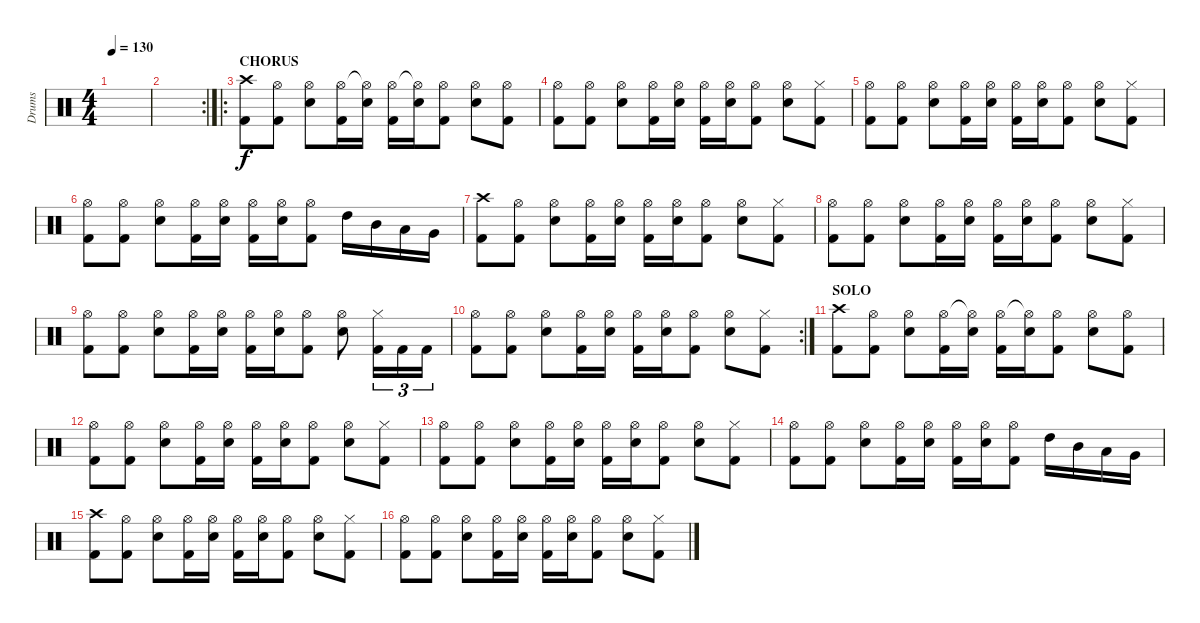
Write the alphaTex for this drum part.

\track ("Drums" "Drums") {instrument percussion}
\staff {score}
\articulation defaults
\ts (4 4)
\tempo 130
\clef neutral
\ks c
|
\rc 2
|
\ro
\section ("" "CHORUS")
("Crash high (hit)" "Kick (hit) 2").8 ("Hi-Hat (open)" "Kick (hit) 2").8 ("Hi-Hat (open)" "Electric Snare (hit)").8 ("Hi-Hat (open)" "Kick (hit) 2").16 ("Hi-Hat (open)"{t} "Electric Snare (hit)").16 ("Hi-Hat (open)" "Kick (hit) 2").16 ("Hi-Hat (open)"{t} "Electric Snare (hit)").16 ("Hi-Hat (open)" "Kick (hit) 2").8 ("Hi-Hat (open)" "Electric Snare (hit)").8 ("Hi-Hat (open)" "Kick (hit) 2").8 |
("Hi-Hat (open)" "Kick (hit) 2").8 ("Hi-Hat (open)" "Kick (hit) 2").8 ("Hi-Hat (open)" "Electric Snare (hit)").8 ("Hi-Hat (open)" "Kick (hit) 2").16 ("Hi-Hat (open)" "Electric Snare (hit)").16 ("Hi-Hat (open)" "Kick (hit) 2").16 ("Hi-Hat (open)" "Electric Snare (hit)").16 ("Hi-Hat (open)" "Kick (hit) 2").8 ("Hi-Hat (open)" "Electric Snare (hit)").8 ("Hi-Hat (closed)" "Kick (hit) 2").8 |
("Hi-Hat (open)" "Kick (hit) 2").8 ("Hi-Hat (open)" "Kick (hit) 2").8 ("Hi-Hat (open)" "Electric Snare (hit)").8 ("Hi-Hat (open)" "Kick (hit) 2").16 ("Hi-Hat (open)" "Electric Snare (hit)").16 ("Hi-Hat (open)" "Kick (hit) 2").16 ("Hi-Hat (open)" "Electric Snare (hit)").16 ("Hi-Hat (open)" "Kick (hit) 2").8 ("Hi-Hat (open)" "Electric Snare (hit)").8 ("Hi-Hat (closed)" "Kick (hit) 2").8 |
("Hi-Hat (open)" "Kick (hit) 2").8 ("Hi-Hat (open)" "Kick (hit) 2").8 ("Hi-Hat (open)" "Electric Snare (hit)").8 ("Hi-Hat (open)" "Kick (hit) 2").16 ("Hi-Hat (open)" "Electric Snare (hit)").16 ("Hi-Hat (open)" "Kick (hit) 2").16 ("Hi-Hat (open)" "Electric Snare (hit)").16 ("Hi-Hat (open)" "Kick (hit) 2").8 "High Tom (hit)".16 "Mid Tom (hit)".16 "Low Tom (hit)".16 "Very Low Tom (hit)".16 |
("Crash high (hit)" "Kick (hit) 2").8 ("Hi-Hat (open)" "Kick (hit) 2").8 ("Hi-Hat (open)" "Electric Snare (hit)").8 ("Hi-Hat (open)" "Kick (hit) 2").16 ("Hi-Hat (open)" "Electric Snare (hit)").16 ("Hi-Hat (open)" "Kick (hit) 2").16 ("Hi-Hat (open)" "Electric Snare (hit)").16 ("Hi-Hat (open)" "Kick (hit) 2").8 ("Hi-Hat (open)" "Electric Snare (hit)").8 ("Hi-Hat (closed)" "Kick (hit) 2").8 |
("Hi-Hat (open)" "Kick (hit) 2").8 ("Hi-Hat (open)" "Kick (hit) 2").8 ("Hi-Hat (open)" "Electric Snare (hit)").8 ("Hi-Hat (open)" "Kick (hit) 2").16 ("Hi-Hat (open)" "Electric Snare (hit)").16 ("Hi-Hat (open)" "Kick (hit) 2").16 ("Hi-Hat (open)" "Electric Snare (hit)").16 ("Hi-Hat (open)" "Kick (hit) 2").8 ("Hi-Hat (open)" "Electric Snare (hit)").8 ("Hi-Hat (closed)" "Kick (hit) 2").8 |
("Hi-Hat (open)" "Kick (hit) 2").8 ("Hi-Hat (open)" "Kick (hit) 2").8 ("Hi-Hat (open)" "Electric Snare (hit)").8 ("Hi-Hat (open)" "Kick (hit) 2").16 ("Hi-Hat (open)" "Electric Snare (hit)").16 ("Hi-Hat (open)" "Kick (hit) 2").16 ("Hi-Hat (open)" "Electric Snare (hit)").16 ("Hi-Hat (open)" "Kick (hit) 2").8 ("Hi-Hat (open)" "Electric Snare (hit)").8 ("Hi-Hat (closed)" "Kick (hit) 2").16{tu (3 2)} "Kick (hit) 2".16{tu (3 2)} "Kick (hit) 2".16{tu (3 2)} |
\rc 2
("Hi-Hat (open)" "Kick (hit) 2").8 ("Hi-Hat (open)" "Kick (hit) 2").8 ("Hi-Hat (open)" "Electric Snare (hit)").8 ("Hi-Hat (open)" "Kick (hit) 2").16 ("Hi-Hat (open)" "Electric Snare (hit)").16 ("Hi-Hat (open)" "Kick (hit) 2").16 ("Hi-Hat (open)" "Electric Snare (hit)").16 ("Hi-Hat (open)" "Kick (hit) 2").8 ("Hi-Hat (open)" "Electric Snare (hit)").8 ("Hi-Hat (closed)" "Kick (hit) 2").8 |
\section ("" "SOLO")
("Crash high (hit)" "Kick (hit) 2").8 ("Hi-Hat (open)" "Kick (hit) 2").8 ("Hi-Hat (open)" "Electric Snare (hit)").8 ("Hi-Hat (open)" "Kick (hit) 2").16 ("Hi-Hat (open)"{t} "Electric Snare (hit)").16 ("Hi-Hat (open)" "Kick (hit) 2").16 ("Hi-Hat (open)"{t} "Electric Snare (hit)").16 ("Hi-Hat (open)" "Kick (hit) 2").8 ("Hi-Hat (open)" "Electric Snare (hit)").8 ("Hi-Hat (open)" "Kick (hit) 2").8 |
("Hi-Hat (open)" "Kick (hit) 2").8 ("Hi-Hat (open)" "Kick (hit) 2").8 ("Hi-Hat (open)" "Electric Snare (hit)").8 ("Hi-Hat (open)" "Kick (hit) 2").16 ("Hi-Hat (open)" "Electric Snare (hit)").16 ("Hi-Hat (open)" "Kick (hit) 2").16 ("Hi-Hat (open)" "Electric Snare (hit)").16 ("Hi-Hat (open)" "Kick (hit) 2").8 ("Hi-Hat (open)" "Electric Snare (hit)").8 ("Hi-Hat (closed)" "Kick (hit) 2").8 |
("Hi-Hat (open)" "Kick (hit) 2").8 ("Hi-Hat (open)" "Kick (hit) 2").8 ("Hi-Hat (open)" "Electric Snare (hit)").8 ("Hi-Hat (open)" "Kick (hit) 2").16 ("Hi-Hat (open)" "Electric Snare (hit)").16 ("Hi-Hat (open)" "Kick (hit) 2").16 ("Hi-Hat (open)" "Electric Snare (hit)").16 ("Hi-Hat (open)" "Kick (hit) 2").8 ("Hi-Hat (open)" "Electric Snare (hit)").8 ("Hi-Hat (closed)" "Kick (hit) 2").8 |
("Hi-Hat (open)" "Kick (hit) 2").8 ("Hi-Hat (open)" "Kick (hit) 2").8 ("Hi-Hat (open)" "Electric Snare (hit)").8 ("Hi-Hat (open)" "Kick (hit) 2").16 ("Hi-Hat (open)" "Electric Snare (hit)").16 ("Hi-Hat (open)" "Kick (hit) 2").16 ("Hi-Hat (open)" "Electric Snare (hit)").16 ("Hi-Hat (open)" "Kick (hit) 2").8 "High Tom (hit)".16 "Mid Tom (hit)".16 "Low Tom (hit)".16 "Very Low Tom (hit)".16 |
("Crash high (hit)" "Kick (hit) 2").8 ("Hi-Hat (open)" "Kick (hit) 2").8 ("Hi-Hat (open)" "Electric Snare (hit)").8 ("Hi-Hat (open)" "Kick (hit) 2").16 ("Hi-Hat (open)" "Electric Snare (hit)").16 ("Hi-Hat (open)" "Kick (hit) 2").16 ("Hi-Hat (open)" "Electric Snare (hit)").16 ("Hi-Hat (open)" "Kick (hit) 2").8 ("Hi-Hat (open)" "Electric Snare (hit)").8 ("Hi-Hat (closed)" "Kick (hit) 2").8 |
("Hi-Hat (open)" "Kick (hit) 2").8 ("Hi-Hat (open)" "Kick (hit) 2").8 ("Hi-Hat (open)" "Electric Snare (hit)").8 ("Hi-Hat (open)" "Kick (hit) 2").16 ("Hi-Hat (open)" "Electric Snare (hit)").16 ("Hi-Hat (open)" "Kick (hit) 2").16 ("Hi-Hat (open)" "Electric Snare (hit)").16 ("Hi-Hat (open)" "Kick (hit) 2").8 ("Hi-Hat (open)" "Electric Snare (hit)").8 ("Hi-Hat (closed)" "Kick (hit) 2").8
